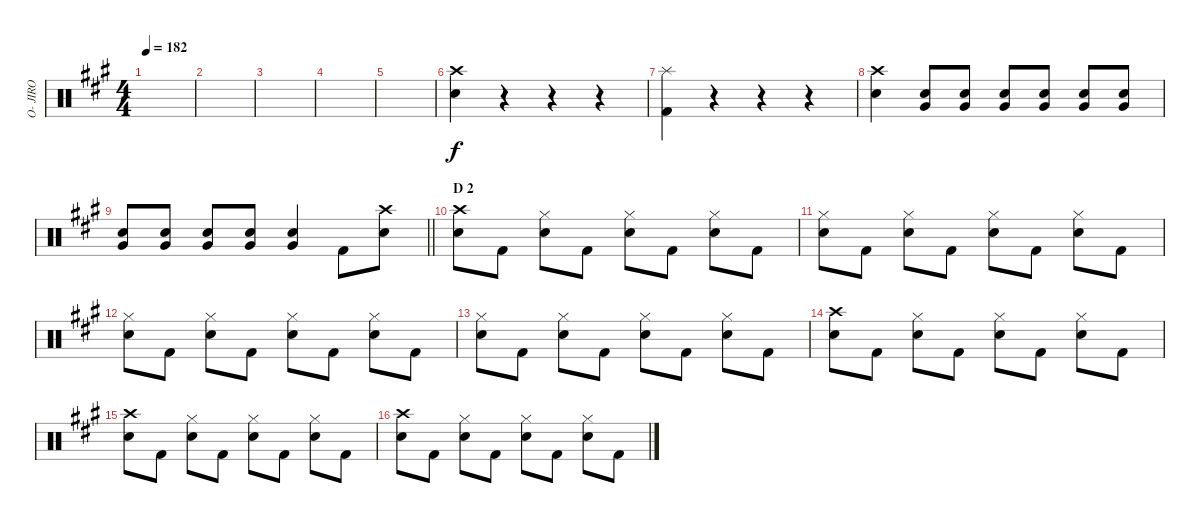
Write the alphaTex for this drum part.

\track ("O- JIRO" "O- JIRO") {instrument percussion}
\staff {score}
\articulation defaults
\ts (4 4)
\tempo 182
\clef neutral
\ks a
|
|
|
|
|
("Crash high (hit)" "Snare (hit) 2").4 r.4 r.4 r.4 |
("Splash (hit)" "Kick (hit) 2").4 r.4 r.4 r.4 |
("Crash high (hit)" "Snare (hit) 2").4 ("Snare (hit) 2" "Very Low Tom (hit)").8 ("Snare (hit) 2" "Very Low Tom (hit)").8 ("Snare (hit) 2" "Very Low Tom (hit)").8 ("Snare (hit) 2" "Very Low Tom (hit)").8 ("Snare (hit) 2" "Very Low Tom (hit)").8 ("Snare (hit) 2" "Very Low Tom (hit)").8 |
\barLineRight lightlight
("Snare (hit) 2" "Very Low Tom (hit)").8 ("Snare (hit) 2" "Very Low Tom (hit)").8 ("Snare (hit) 2" "Very Low Tom (hit)").8 ("Snare (hit) 2" "Very Low Tom (hit)").8 ("Snare (hit) 2" "Very Low Tom (hit)").4 "Kick (hit) 2".8 ("Crash high (hit)" "Snare (hit) 2").8 |
\section ("" "D 2")
("Crash high (hit)" "Snare (hit) 2").8 "Kick (hit) 2".8 ("Hi-Hat (closed)" "Snare (hit) 2").8 "Kick (hit) 2".8 ("Hi-Hat (closed)" "Snare (hit) 2").8 "Kick (hit) 2".8 ("Hi-Hat (closed)" "Snare (hit) 2").8 "Kick (hit) 2".8 |
("Hi-Hat (closed)" "Snare (hit) 2").8 "Kick (hit) 2".8 ("Hi-Hat (closed)" "Snare (hit) 2").8 "Kick (hit) 2".8 ("Hi-Hat (closed)" "Snare (hit) 2").8 "Kick (hit) 2".8 ("Hi-Hat (closed)" "Snare (hit) 2").8 "Kick (hit) 2".8 |
("Hi-Hat (closed)" "Snare (hit) 2").8 "Kick (hit) 2".8 ("Hi-Hat (closed)" "Snare (hit) 2").8 "Kick (hit) 2".8 ("Hi-Hat (closed)" "Snare (hit) 2").8 "Kick (hit) 2".8 ("Hi-Hat (closed)" "Snare (hit) 2").8 "Kick (hit) 2".8 |
("Hi-Hat (closed)" "Snare (hit) 2").8 "Kick (hit) 2".8 ("Hi-Hat (closed)" "Snare (hit) 2").8 "Kick (hit) 2".8 ("Hi-Hat (closed)" "Snare (hit) 2").8 "Kick (hit) 2".8 ("Hi-Hat (closed)" "Snare (hit) 2").8 "Kick (hit) 2".8 |
("Crash high (hit)" "Snare (hit) 2").8 "Kick (hit) 2".8 ("Hi-Hat (closed)" "Snare (hit) 2").8 "Kick (hit) 2".8 ("Hi-Hat (closed)" "Snare (hit) 2").8 "Kick (hit) 2".8 ("Hi-Hat (closed)" "Snare (hit) 2").8 "Kick (hit) 2".8 |
("Crash high (hit)" "Snare (hit) 2").8 "Kick (hit) 2".8 ("Hi-Hat (closed)" "Snare (hit) 2").8 "Kick (hit) 2".8 ("Hi-Hat (closed)" "Snare (hit) 2").8 "Kick (hit) 2".8 ("Hi-Hat (closed)" "Snare (hit) 2").8 "Kick (hit) 2".8 |
("Crash high (hit)" "Snare (hit) 2").8 "Kick (hit) 2".8 ("Hi-Hat (closed)" "Snare (hit) 2").8 "Kick (hit) 2".8 ("Hi-Hat (closed)" "Snare (hit) 2").8 "Kick (hit) 2".8 ("Hi-Hat (closed)" "Snare (hit) 2").8 "Kick (hit) 2".8
